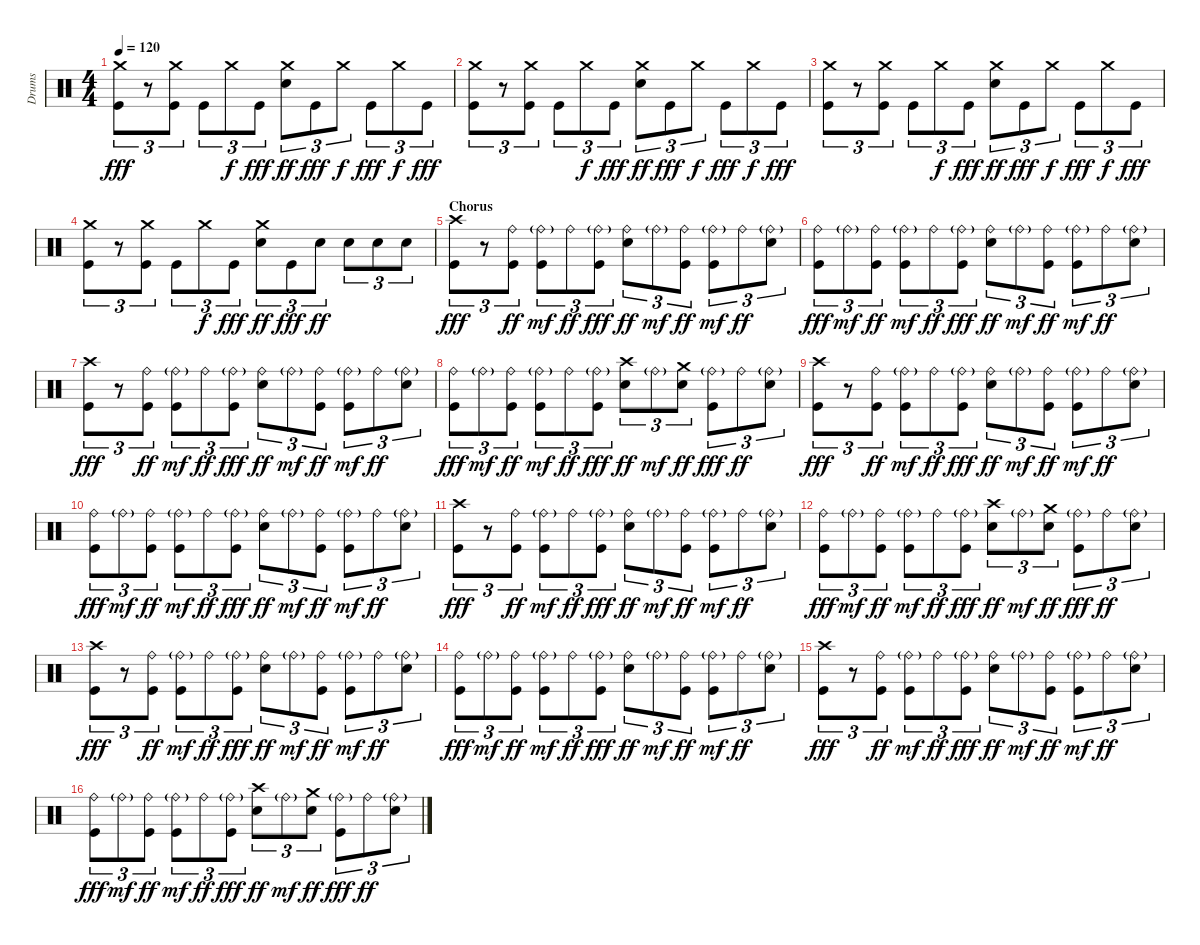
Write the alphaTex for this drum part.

\track ("Drums" "Drums") {instrument percussion}
\staff {score}
\articulation defaults
\ts (4 4)
\tempo 120
\clef neutral
\ks c
("Crash medium (hit)" "Kick (hit)").8{tu (3 2) dy fff} r.8{tu (3 2)} ("Crash medium (hit)" "Kick (hit)").8{tu (3 2)} "Kick (hit)".8{tu (3 2)} "Crash medium (hit)".8{tu (3 2) dy f} "Kick (hit)".8{tu (3 2) dy fff} ("Crash medium (hit)" "Snare (hit) 2").8{tu (3 2) dy ff} "Kick (hit)".8{tu (3 2) dy fff} "Crash medium (hit)".8{tu (3 2) dy f} "Kick (hit)".8{tu (3 2) dy fff} "Crash medium (hit)".8{tu (3 2) dy f} "Kick (hit)".8{tu (3 2) dy fff} |
("Crash medium (hit)" "Kick (hit)").8{tu (3 2)} r.8{tu (3 2)} ("Crash medium (hit)" "Kick (hit)").8{tu (3 2)} "Kick (hit)".8{tu (3 2)} "Crash medium (hit)".8{tu (3 2) dy f} "Kick (hit)".8{tu (3 2) dy fff} ("Crash medium (hit)" "Snare (hit) 2").8{tu (3 2) dy ff} "Kick (hit)".8{tu (3 2) dy fff} "Crash medium (hit)".8{tu (3 2) dy f} "Kick (hit)".8{tu (3 2) dy fff} "Crash medium (hit)".8{tu (3 2) dy f} "Kick (hit)".8{tu (3 2) dy fff} |
("Crash medium (hit)" "Kick (hit)").8{tu (3 2)} r.8{tu (3 2)} ("Crash medium (hit)" "Kick (hit)").8{tu (3 2)} "Kick (hit)".8{tu (3 2)} "Crash medium (hit)".8{tu (3 2) dy f} "Kick (hit)".8{tu (3 2) dy fff} ("Crash medium (hit)" "Snare (hit) 2").8{tu (3 2) dy ff} "Kick (hit)".8{tu (3 2) dy fff} "Crash medium (hit)".8{tu (3 2) dy f} "Kick (hit)".8{tu (3 2) dy fff} "Crash medium (hit)".8{tu (3 2) dy f} "Kick (hit)".8{tu (3 2) dy fff} |
("Crash medium (hit)" "Kick (hit)").8{tu (3 2)} r.8{tu (3 2)} ("Crash medium (hit)" "Kick (hit)").8{tu (3 2)} "Kick (hit)".8{tu (3 2)} "Crash medium (hit)".8{tu (3 2) dy f} "Kick (hit)".8{tu (3 2) dy fff} ("Crash medium (hit)" "Snare (hit) 2").8{tu (3 2) dy ff} "Kick (hit)".8{tu (3 2) dy fff} "Snare (hit) 2".8{tu (3 2) dy ff} "Snare (hit) 2".8{tu (3 2)} "Snare (hit) 2".8{tu (3 2)} "Snare (hit) 2".8{tu (3 2)} |
\section ("" "Chorus")
("Crash high (hit)" "Kick (hit)").8{tu (3 2) dy fff} r.8{tu (3 2)} ("Ride (bell)" "Kick (hit)").8{tu (3 2) dy ff} ("Ride (bell)"{g} "Kick (hit)").8{tu (3 2) dy mf} "Ride (bell)".8{tu (3 2) dy ff} ("Ride (bell)"{g} "Kick (hit)").8{tu (3 2) dy fff} ("Ride (bell)" "Snare (hit) 2").8{tu (3 2) dy ff} "Ride (bell)"{g}.8{tu (3 2) dy mf} ("Ride (bell)" "Kick (hit)").8{tu (3 2) dy ff} ("Ride (bell)"{g} "Kick (hit)").8{tu (3 2) dy mf} "Ride (bell)".8{tu (3 2) dy ff} ("Ride (bell)"{g} "Snare (hit) 2").8{tu (3 2)} |
("Ride (bell)" "Kick (hit)").8{tu (3 2) dy fff} "Ride (bell)"{g}.8{tu (3 2) dy mf} ("Ride (bell)" "Kick (hit)").8{tu (3 2) dy ff} ("Ride (bell)"{g} "Kick (hit)").8{tu (3 2) dy mf} "Ride (bell)".8{tu (3 2) dy ff} ("Ride (bell)"{g} "Kick (hit)").8{tu (3 2) dy fff} ("Ride (bell)" "Snare (hit) 2").8{tu (3 2) dy ff} "Ride (bell)"{g}.8{tu (3 2) dy mf} ("Ride (bell)" "Kick (hit)").8{tu (3 2) dy ff} ("Ride (bell)"{g} "Kick (hit)").8{tu (3 2) dy mf} "Ride (bell)".8{tu (3 2) dy ff} ("Ride (bell)"{g} "Snare (hit) 2").8{tu (3 2)} |
("Crash high (hit)" "Kick (hit)").8{tu (3 2) dy fff} r.8{tu (3 2)} ("Ride (bell)" "Kick (hit)").8{tu (3 2) dy ff} ("Ride (bell)"{g} "Kick (hit)").8{tu (3 2) dy mf} "Ride (bell)".8{tu (3 2) dy ff} ("Ride (bell)"{g} "Kick (hit)").8{tu (3 2) dy fff} ("Ride (bell)" "Snare (hit) 2").8{tu (3 2) dy ff} "Ride (bell)"{g}.8{tu (3 2) dy mf} ("Ride (bell)" "Kick (hit)").8{tu (3 2) dy ff} ("Ride (bell)"{g} "Kick (hit)").8{tu (3 2) dy mf} "Ride (bell)".8{tu (3 2) dy ff} ("Ride (bell)"{g} "Snare (hit) 2").8{tu (3 2)} |
("Ride (bell)" "Kick (hit)").8{tu (3 2) dy fff} "Ride (bell)"{g}.8{tu (3 2) dy mf} ("Ride (bell)" "Kick (hit)").8{tu (3 2) dy ff} ("Ride (bell)"{g} "Kick (hit)").8{tu (3 2) dy mf} "Ride (bell)".8{tu (3 2) dy ff} ("Ride (bell)"{g} "Kick (hit)").8{tu (3 2) dy fff} ("Crash high (hit)" "Snare (hit) 2").8{tu (3 2) dy ff} "Ride (bell)"{g}.8{tu (3 2) dy mf} ("Crash medium (hit)" "Snare (hit) 2").8{tu (3 2) dy ff} ("Ride (bell)"{g} "Kick (hit)").8{tu (3 2) dy fff} "Ride (bell)".8{tu (3 2) dy ff} ("Ride (bell)"{g} "Snare (hit) 2").8{tu (3 2)} |
("Crash high (hit)" "Kick (hit)").8{tu (3 2) dy fff} r.8{tu (3 2)} ("Ride (bell)" "Kick (hit)").8{tu (3 2) dy ff} ("Ride (bell)"{g} "Kick (hit)").8{tu (3 2) dy mf} "Ride (bell)".8{tu (3 2) dy ff} ("Ride (bell)"{g} "Kick (hit)").8{tu (3 2) dy fff} ("Ride (bell)" "Snare (hit) 2").8{tu (3 2) dy ff} "Ride (bell)"{g}.8{tu (3 2) dy mf} ("Ride (bell)" "Kick (hit)").8{tu (3 2) dy ff} ("Ride (bell)"{g} "Kick (hit)").8{tu (3 2) dy mf} "Ride (bell)".8{tu (3 2) dy ff} ("Ride (bell)"{g} "Snare (hit) 2").8{tu (3 2)} |
("Ride (bell)" "Kick (hit)").8{tu (3 2) dy fff} "Ride (bell)"{g}.8{tu (3 2) dy mf} ("Ride (bell)" "Kick (hit)").8{tu (3 2) dy ff} ("Ride (bell)"{g} "Kick (hit)").8{tu (3 2) dy mf} "Ride (bell)".8{tu (3 2) dy ff} ("Ride (bell)"{g} "Kick (hit)").8{tu (3 2) dy fff} ("Ride (bell)" "Snare (hit) 2").8{tu (3 2) dy ff} "Ride (bell)"{g}.8{tu (3 2) dy mf} ("Ride (bell)" "Kick (hit)").8{tu (3 2) dy ff} ("Ride (bell)"{g} "Kick (hit)").8{tu (3 2) dy mf} "Ride (bell)".8{tu (3 2) dy ff} ("Ride (bell)"{g} "Snare (hit) 2").8{tu (3 2)} |
("Crash high (hit)" "Kick (hit)").8{tu (3 2) dy fff} r.8{tu (3 2)} ("Ride (bell)" "Kick (hit)").8{tu (3 2) dy ff} ("Ride (bell)"{g} "Kick (hit)").8{tu (3 2) dy mf} "Ride (bell)".8{tu (3 2) dy ff} ("Ride (bell)"{g} "Kick (hit)").8{tu (3 2) dy fff} ("Ride (bell)" "Snare (hit) 2").8{tu (3 2) dy ff} "Ride (bell)"{g}.8{tu (3 2) dy mf} ("Ride (bell)" "Kick (hit)").8{tu (3 2) dy ff} ("Ride (bell)"{g} "Kick (hit)").8{tu (3 2) dy mf} "Ride (bell)".8{tu (3 2) dy ff} ("Ride (bell)"{g} "Snare (hit) 2").8{tu (3 2)} |
("Ride (bell)" "Kick (hit)").8{tu (3 2) dy fff} "Ride (bell)"{g}.8{tu (3 2) dy mf} ("Ride (bell)" "Kick (hit)").8{tu (3 2) dy ff} ("Ride (bell)"{g} "Kick (hit)").8{tu (3 2) dy mf} "Ride (bell)".8{tu (3 2) dy ff} ("Ride (bell)"{g} "Kick (hit)").8{tu (3 2) dy fff} ("Crash high (hit)" "Snare (hit) 2").8{tu (3 2) dy ff} "Ride (bell)"{g}.8{tu (3 2) dy mf} ("Crash medium (hit)" "Snare (hit) 2").8{tu (3 2) dy ff} ("Ride (bell)"{g} "Kick (hit)").8{tu (3 2) dy fff} "Ride (bell)".8{tu (3 2) dy ff} ("Ride (bell)"{g} "Snare (hit) 2").8{tu (3 2)} |
("Crash high (hit)" "Kick (hit)").8{tu (3 2) dy fff} r.8{tu (3 2)} ("Ride (bell)" "Kick (hit)").8{tu (3 2) dy ff} ("Ride (bell)"{g} "Kick (hit)").8{tu (3 2) dy mf} "Ride (bell)".8{tu (3 2) dy ff} ("Ride (bell)"{g} "Kick (hit)").8{tu (3 2) dy fff} ("Ride (bell)" "Snare (hit) 2").8{tu (3 2) dy ff} "Ride (bell)"{g}.8{tu (3 2) dy mf} ("Ride (bell)" "Kick (hit)").8{tu (3 2) dy ff} ("Ride (bell)"{g} "Kick (hit)").8{tu (3 2) dy mf} "Ride (bell)".8{tu (3 2) dy ff} ("Ride (bell)"{g} "Snare (hit) 2").8{tu (3 2)} |
("Ride (bell)" "Kick (hit)").8{tu (3 2) dy fff} "Ride (bell)"{g}.8{tu (3 2) dy mf} ("Ride (bell)" "Kick (hit)").8{tu (3 2) dy ff} ("Ride (bell)"{g} "Kick (hit)").8{tu (3 2) dy mf} "Ride (bell)".8{tu (3 2) dy ff} ("Ride (bell)"{g} "Kick (hit)").8{tu (3 2) dy fff} ("Ride (bell)" "Snare (hit) 2").8{tu (3 2) dy ff} "Ride (bell)"{g}.8{tu (3 2) dy mf} ("Ride (bell)" "Kick (hit)").8{tu (3 2) dy ff} ("Ride (bell)"{g} "Kick (hit)").8{tu (3 2) dy mf} "Ride (bell)".8{tu (3 2) dy ff} ("Ride (bell)"{g} "Snare (hit) 2").8{tu (3 2)} |
("Crash high (hit)" "Kick (hit)").8{tu (3 2) dy fff} r.8{tu (3 2)} ("Ride (bell)" "Kick (hit)").8{tu (3 2) dy ff} ("Ride (bell)"{g} "Kick (hit)").8{tu (3 2) dy mf} "Ride (bell)".8{tu (3 2) dy ff} ("Ride (bell)"{g} "Kick (hit)").8{tu (3 2) dy fff} ("Ride (bell)" "Snare (hit) 2").8{tu (3 2) dy ff} "Ride (bell)"{g}.8{tu (3 2) dy mf} ("Ride (bell)" "Kick (hit)").8{tu (3 2) dy ff} ("Ride (bell)"{g} "Kick (hit)").8{tu (3 2) dy mf} "Ride (bell)".8{tu (3 2) dy ff} ("Ride (bell)"{g} "Snare (hit) 2").8{tu (3 2)} |
("Ride (bell)" "Kick (hit)").8{tu (3 2) dy fff} "Ride (bell)"{g}.8{tu (3 2) dy mf} ("Ride (bell)" "Kick (hit)").8{tu (3 2) dy ff} ("Ride (bell)"{g} "Kick (hit)").8{tu (3 2) dy mf} "Ride (bell)".8{tu (3 2) dy ff} ("Ride (bell)"{g} "Kick (hit)").8{tu (3 2) dy fff} ("Crash high (hit)" "Snare (hit) 2").8{tu (3 2) dy ff} "Ride (bell)"{g}.8{tu (3 2) dy mf} ("Crash medium (hit)" "Snare (hit) 2").8{tu (3 2) dy ff} ("Ride (bell)"{g} "Kick (hit)").8{tu (3 2) dy fff} "Ride (bell)".8{tu (3 2) dy ff} ("Ride (bell)"{g} "Snare (hit) 2").8{tu (3 2)}
